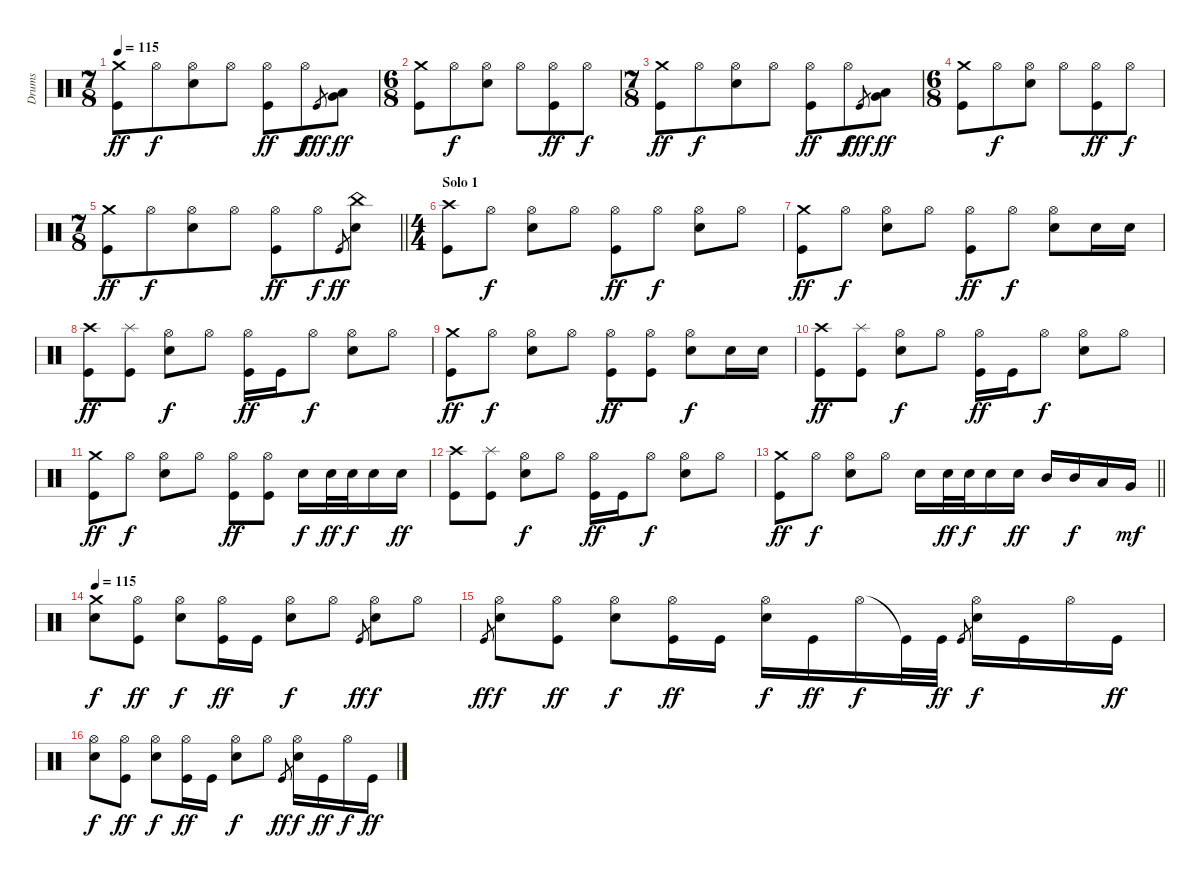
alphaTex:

\track ("Drums" "Drums") {instrument percussion}
\staff {score}
\articulation defaults
\ts (7 8)
\tempo 115
\clef neutral
\ks c
("Crash medium (hit)" "Kick (hit)").8{dy ff} "Hi-Hat (open)".8{dy f} ("Hi-Hat (open)" "Snare (hit) 2").8 "Hi-Hat (open)".8 ("Hi-Hat (open)" "Kick (hit)").8{dy ff} "Hi-Hat (open)".8{dy f} "Kick (hit)".8{gr dy fff} ("Very Low Tom (hit)" "Low Floor Tom (hit)").8{dy ff} |
\ts (6 8)
("Crash medium (hit)" "Kick (hit)").8 "Hi-Hat (open)".8{dy f} ("Hi-Hat (open)" "Snare (hit) 2").8 "Hi-Hat (open)".8 ("Hi-Hat (open)" "Kick (hit)").8{dy ff} "Hi-Hat (open)".8{dy f} |
\ts (7 8)
("Crash medium (hit)" "Kick (hit)").8{dy ff} "Hi-Hat (open)".8{dy f} ("Hi-Hat (open)" "Snare (hit) 2").8 "Hi-Hat (open)".8 ("Hi-Hat (open)" "Kick (hit)").8{dy ff} "Hi-Hat (open)".8{dy f} "Kick (hit)".8{gr dy fff} ("Very Low Tom (hit)" "Low Floor Tom (hit)").8{dy ff} |
\ts (6 8)
("Crash medium (hit)" "Kick (hit)").8 "Hi-Hat (open)".8{dy f} ("Hi-Hat (open)" "Snare (hit) 2").8 "Hi-Hat (open)".8 ("Hi-Hat (open)" "Kick (hit)").8{dy ff} "Hi-Hat (open)".8{dy f} |
\ts (7 8)
\barLineRight lightlight
("Crash medium (hit)" "Kick (hit)").8{dy ff} "Hi-Hat (open)".8{dy f} ("Hi-Hat (open)" "Snare (hit) 2").8 "Hi-Hat (open)".8 ("Hi-Hat (open)" "Kick (hit)").8{dy ff} "Hi-Hat (open)".8{dy f} "Kick (hit)".8{gr dy ff} ("China (hit)" "Snare (hit) 2").8 |
\ts (4 4)
\section ("" "Solo 1")
("Crash high (hit)" "Kick (hit)").8 "Hi-Hat (open)".8{dy f} ("Hi-Hat (open)" "Snare (hit) 2").8 "Hi-Hat (open)".8 ("Hi-Hat (open)" "Kick (hit)").8{dy ff} "Hi-Hat (open)".8{dy f} ("Hi-Hat (open)" "Snare (hit) 2").8 "Hi-Hat (open)".8 |
("Crash medium (hit)" "Kick (hit)").8{dy ff} "Hi-Hat (open)".8{dy f} ("Hi-Hat (open)" "Snare (hit) 2").8 "Hi-Hat (open)".8 ("Hi-Hat (open)" "Kick (hit)").8{dy ff} "Hi-Hat (open)".8{dy f} ("Hi-Hat (open)" "Snare (hit) 2").8 "Snare (hit) 2".16 "Snare (hit) 2".16 |
("Crash high (hit)" "Kick (hit)").8{dy ff} ("Splash (hit)" "Kick (hit)").8 ("Hi-Hat (open)" "Snare (hit) 2").8{dy f} "Hi-Hat (open)".8 ("Hi-Hat (open)" "Kick (hit)").16{dy ff} "Kick (hit)".16 "Hi-Hat (open)".8{dy f} ("Hi-Hat (open)" "Snare (hit) 2").8 "Hi-Hat (open)".8 |
("Crash medium (hit)" "Kick (hit)").8{dy ff} "Hi-Hat (open)".8{dy f} ("Hi-Hat (open)" "Snare (hit) 2").8 "Hi-Hat (open)".8 ("Hi-Hat (open)" "Kick (hit)").8{dy ff} ("Hi-Hat (open)" "Kick (hit)").8 ("Hi-Hat (open)" "Snare (hit) 2").8{dy f} "Snare (hit) 2".16 "Snare (hit) 2".16 |
("Crash high (hit)" "Kick (hit)").8{dy ff} ("Splash (hit)" "Kick (hit)").8 ("Hi-Hat (open)" "Snare (hit) 2").8{dy f} "Hi-Hat (open)".8 ("Hi-Hat (open)" "Kick (hit)").16{dy ff} "Kick (hit)".16 "Hi-Hat (open)".8{dy f} ("Hi-Hat (open)" "Snare (hit) 2").8 "Hi-Hat (open)".8 |
("Crash medium (hit)" "Kick (hit)").8{dy ff} "Hi-Hat (open)".8{dy f} ("Hi-Hat (open)" "Snare (hit) 2").8 "Hi-Hat (open)".8 ("Hi-Hat (open)" "Kick (hit)").8{dy ff} ("Hi-Hat (open)" "Kick (hit)").8 "Snare (hit) 2".16{dy f} "Snare (hit) 2".32{dy ff} "Snare (hit) 2".32{dy f} "Snare (hit) 2".16 "Snare (hit) 2".16{dy ff} |
("Crash high (hit)" "Kick (hit)").8 ("Splash (hit)" "Kick (hit)").8 ("Hi-Hat (open)" "Snare (hit) 2").8{dy f} "Hi-Hat (open)".8 ("Hi-Hat (open)" "Kick (hit)").16{dy ff} "Kick (hit)".16 "Hi-Hat (open)".8{dy f} ("Hi-Hat (open)" "Snare (hit) 2").8 "Hi-Hat (open)".8 |
\barLineRight lightlight
("Crash medium (hit)" "Kick (hit)").8{dy ff} "Hi-Hat (open)".8{dy f} ("Hi-Hat (open)" "Snare (hit) 2").8 "Hi-Hat (open)".8 "Snare (hit) 2".16 "Snare (hit) 2".32{dy ff} "Snare (hit) 2".32{dy f} "Snare (hit) 2".16 "Snare (hit) 2".16{dy ff} "Mid Tom (hit)".16 "Mid Tom (hit)".16{dy f} "Low Tom (hit)".16 "Very Low Tom (hit)".16{dy mf} |
\tempo 115
("Crash medium (hit)" "Snare (hit) 2").8{dy f} ("Hi-Hat (open)" "Kick (hit)").8{dy ff} ("Hi-Hat (open)" "Snare (hit) 2").8{dy f} ("Hi-Hat (open)" "Kick (hit)").16{dy ff} "Kick (hit)".16 ("Hi-Hat (open)" "Snare (hit) 2").8{dy f} "Hi-Hat (open)".8 "Kick (hit)".8{gr dy ff} ("Hi-Hat (open)" "Snare (hit) 2").8{dy f} "Hi-Hat (open)".8 |
"Kick (hit)".8{gr dy ff} ("Hi-Hat (open)" "Snare (hit) 2").8{dy f} ("Hi-Hat (open)" "Kick (hit)").8{dy ff} ("Hi-Hat (open)" "Snare (hit) 2").8{dy f} ("Hi-Hat (open)" "Kick (hit)").16{dy ff} "Kick (hit)".16 ("Hi-Hat (open)" "Snare (hit) 2").16{dy f} "Kick (hit)".16{dy ff} "Hi-Hat (open)".16{dy f} "Kick (hit)"{t}.32 "Kick (hit)".32{dy ff} "Kick (hit)".8{gr} ("Hi-Hat (open)" "Snare (hit) 2").16{dy f} "Kick (hit)".16 "Hi-Hat (open)".16 "Kick (hit)".16{dy ff} |
("Hi-Hat (open)" "Snare (hit) 2").8{dy f} ("Hi-Hat (open)" "Kick (hit)").8{dy ff} ("Hi-Hat (open)" "Snare (hit) 2").8{dy f} ("Hi-Hat (open)" "Kick (hit)").16{dy ff} "Kick (hit)".16 ("Hi-Hat (open)" "Snare (hit) 2").8{dy f} "Hi-Hat (open)".8 "Kick (hit)".8{gr dy ff} ("Hi-Hat (open)" "Snare (hit) 2").16{dy f} "Kick (hit)".16{dy ff} "Hi-Hat (open)".16{dy f} "Kick (hit)".16{dy ff}
